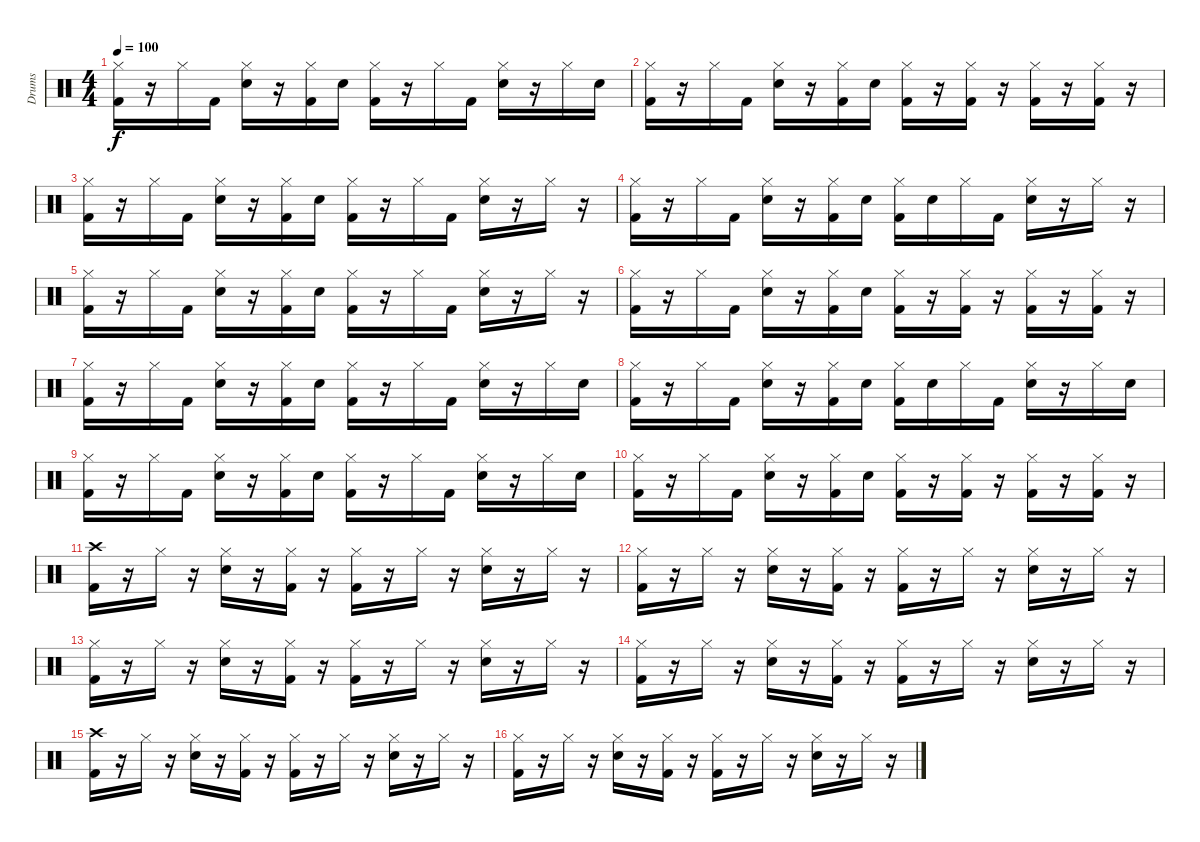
\track ("Drums" "Drums") {instrument percussion}
\staff {score}
\articulation defaults
\ts (4 4)
\tempo 100
\clef neutral
\ks c
("Hi-Hat (closed)" "Kick (hit) 2").16{dy f} r.16 "Hi-Hat (closed)".16 "Kick (hit) 2".16 ("Hi-Hat (closed)" "Snare (hit) 2").16 r.16 ("Hi-Hat (closed)" "Kick (hit) 2").16 "Snare (hit) 2".16 ("Hi-Hat (closed)" "Kick (hit) 2").16 r.16 "Hi-Hat (closed)".16 "Kick (hit) 2".16 ("Hi-Hat (closed)" "Snare (hit) 2").16 r.16 "Hi-Hat (closed)".16 "Snare (hit) 2".16 |
("Hi-Hat (closed)" "Kick (hit) 2").16 r.16 "Hi-Hat (closed)".16 "Kick (hit) 2".16 ("Hi-Hat (closed)" "Snare (hit) 2").16 r.16 ("Hi-Hat (closed)" "Kick (hit) 2").16 "Snare (hit) 2".16 ("Hi-Hat (closed)" "Kick (hit) 2").16 r.16 ("Hi-Hat (closed)" "Kick (hit) 2").16 r.16 ("Hi-Hat (closed)" "Kick (hit) 2").16 r.16 ("Hi-Hat (closed)" "Kick (hit) 2").16 r.16 |
("Hi-Hat (closed)" "Kick (hit) 2").16 r.16 "Hi-Hat (closed)".16 "Kick (hit) 2".16 ("Hi-Hat (closed)" "Snare (hit) 2").16 r.16 ("Hi-Hat (closed)" "Kick (hit) 2").16 "Snare (hit) 2".16 ("Hi-Hat (closed)" "Kick (hit) 2").16 r.16 "Hi-Hat (closed)".16 "Kick (hit) 2".16 ("Hi-Hat (closed)" "Snare (hit) 2").16 r.16 "Hi-Hat (closed)".16 r.16 |
("Hi-Hat (closed)" "Kick (hit) 2").16 r.16 "Hi-Hat (closed)".16 "Kick (hit) 2".16 ("Hi-Hat (closed)" "Snare (hit) 2").16 r.16 ("Hi-Hat (closed)" "Kick (hit) 2").16 "Snare (hit) 2".16 ("Hi-Hat (closed)" "Kick (hit) 2").16 "Snare (hit) 2".16 "Hi-Hat (closed)".16 "Kick (hit) 2".16 ("Hi-Hat (closed)" "Snare (hit) 2").16 r.16 "Hi-Hat (closed)".16 r.16 |
("Hi-Hat (closed)" "Kick (hit) 2").16 r.16 "Hi-Hat (closed)".16 "Kick (hit) 2".16 ("Hi-Hat (closed)" "Snare (hit) 2").16 r.16 ("Hi-Hat (closed)" "Kick (hit) 2").16 "Snare (hit) 2".16 ("Hi-Hat (closed)" "Kick (hit) 2").16 r.16 "Hi-Hat (closed)".16 "Kick (hit) 2".16 ("Hi-Hat (closed)" "Snare (hit) 2").16 r.16 "Hi-Hat (closed)".16 r.16 |
("Hi-Hat (closed)" "Kick (hit) 2").16 r.16 "Hi-Hat (closed)".16 "Kick (hit) 2".16 ("Hi-Hat (closed)" "Snare (hit) 2").16 r.16 ("Hi-Hat (closed)" "Kick (hit) 2").16 "Snare (hit) 2".16 ("Hi-Hat (closed)" "Kick (hit) 2").16 r.16 ("Hi-Hat (closed)" "Kick (hit) 2").16 r.16 ("Hi-Hat (closed)" "Kick (hit) 2").16 r.16 ("Hi-Hat (closed)" "Kick (hit) 2").16 r.16 |
("Hi-Hat (closed)" "Kick (hit) 2").16 r.16 "Hi-Hat (closed)".16 "Kick (hit) 2".16 ("Hi-Hat (closed)" "Snare (hit) 2").16 r.16 ("Hi-Hat (closed)" "Kick (hit) 2").16 "Snare (hit) 2".16 ("Hi-Hat (closed)" "Kick (hit) 2").16 r.16 "Hi-Hat (closed)".16 "Kick (hit) 2".16 ("Hi-Hat (closed)" "Snare (hit) 2").16 r.16 "Hi-Hat (closed)".16 "Snare (hit) 2".16 |
("Hi-Hat (closed)" "Kick (hit) 2").16 r.16 "Hi-Hat (closed)".16 "Kick (hit) 2".16 ("Hi-Hat (closed)" "Snare (hit) 2").16 r.16 ("Hi-Hat (closed)" "Kick (hit) 2").16 "Snare (hit) 2".16 ("Hi-Hat (closed)" "Kick (hit) 2").16 "Snare (hit) 2".16 "Hi-Hat (closed)".16 "Kick (hit) 2".16 ("Hi-Hat (closed)" "Snare (hit) 2").16 r.16 "Hi-Hat (closed)".16 "Snare (hit) 2".16 |
("Hi-Hat (closed)" "Kick (hit) 2").16 r.16 "Hi-Hat (closed)".16 "Kick (hit) 2".16 ("Hi-Hat (closed)" "Snare (hit) 2").16 r.16 ("Hi-Hat (closed)" "Kick (hit) 2").16 "Snare (hit) 2".16 ("Hi-Hat (closed)" "Kick (hit) 2").16 r.16 "Hi-Hat (closed)".16 "Kick (hit) 2".16 ("Hi-Hat (closed)" "Snare (hit) 2").16 r.16 "Hi-Hat (closed)".16 "Snare (hit) 2".16 |
("Hi-Hat (closed)" "Kick (hit) 2").16 r.16 "Hi-Hat (closed)".16 "Kick (hit) 2".16 ("Hi-Hat (closed)" "Snare (hit) 2").16 r.16 ("Hi-Hat (closed)" "Kick (hit) 2").16 "Snare (hit) 2".16 ("Hi-Hat (closed)" "Kick (hit) 2").16 r.16 ("Hi-Hat (closed)" "Kick (hit) 2").16 r.16 ("Hi-Hat (closed)" "Kick (hit) 2").16 r.16 ("Hi-Hat (closed)" "Kick (hit) 2").16 r.16 |
("Crash high (hit)" "Kick (hit) 2").16 r.16 "Hi-Hat (closed)".16 r.16 ("Hi-Hat (closed)" "Snare (hit) 2").16 r.16 ("Hi-Hat (closed)" "Kick (hit) 2").16 r.16 ("Hi-Hat (closed)" "Kick (hit) 2").16 r.16 "Hi-Hat (closed)".16 r.16 ("Hi-Hat (closed)" "Snare (hit) 2").16 r.16 "Hi-Hat (closed)".16 r.16 |
("Hi-Hat (closed)" "Kick (hit) 2").16 r.16 "Hi-Hat (closed)".16 r.16 ("Hi-Hat (closed)" "Snare (hit) 2").16 r.16 ("Hi-Hat (closed)" "Kick (hit) 2").16 r.16 ("Hi-Hat (closed)" "Kick (hit) 2").16 r.16 "Hi-Hat (closed)".16 r.16 ("Hi-Hat (closed)" "Snare (hit) 2").16 r.16 "Hi-Hat (closed)".16 r.16 |
("Hi-Hat (closed)" "Kick (hit) 2").16 r.16 "Hi-Hat (closed)".16 r.16 ("Hi-Hat (closed)" "Snare (hit) 2").16 r.16 ("Hi-Hat (closed)" "Kick (hit) 2").16 r.16 ("Hi-Hat (closed)" "Kick (hit) 2").16 r.16 "Hi-Hat (closed)".16 r.16 ("Hi-Hat (closed)" "Snare (hit) 2").16 r.16 "Hi-Hat (closed)".16 r.16 |
("Hi-Hat (closed)" "Kick (hit) 2").16 r.16 "Hi-Hat (closed)".16 r.16 ("Hi-Hat (closed)" "Snare (hit) 2").16 r.16 ("Hi-Hat (closed)" "Kick (hit) 2").16 r.16 ("Hi-Hat (closed)" "Kick (hit) 2").16 r.16 "Hi-Hat (closed)".16 r.16 ("Hi-Hat (closed)" "Snare (hit) 2").16 r.16 "Hi-Hat (closed)".16 r.16 |
("Crash high (hit)" "Kick (hit) 2").16 r.16 "Hi-Hat (closed)".16 r.16 ("Hi-Hat (closed)" "Snare (hit) 2").16 r.16 ("Hi-Hat (closed)" "Kick (hit) 2").16 r.16 ("Hi-Hat (closed)" "Kick (hit) 2").16 r.16 "Hi-Hat (closed)".16 r.16 ("Hi-Hat (closed)" "Snare (hit) 2").16 r.16 "Hi-Hat (closed)".16 r.16 |
("Hi-Hat (closed)" "Kick (hit) 2").16 r.16 "Hi-Hat (closed)".16 r.16 ("Hi-Hat (closed)" "Snare (hit) 2").16 r.16 ("Hi-Hat (closed)" "Kick (hit) 2").16 r.16 ("Hi-Hat (closed)" "Kick (hit) 2").16 r.16 "Hi-Hat (closed)".16 r.16 ("Hi-Hat (closed)" "Snare (hit) 2").16 r.16 "Hi-Hat (closed)".16 r.16
